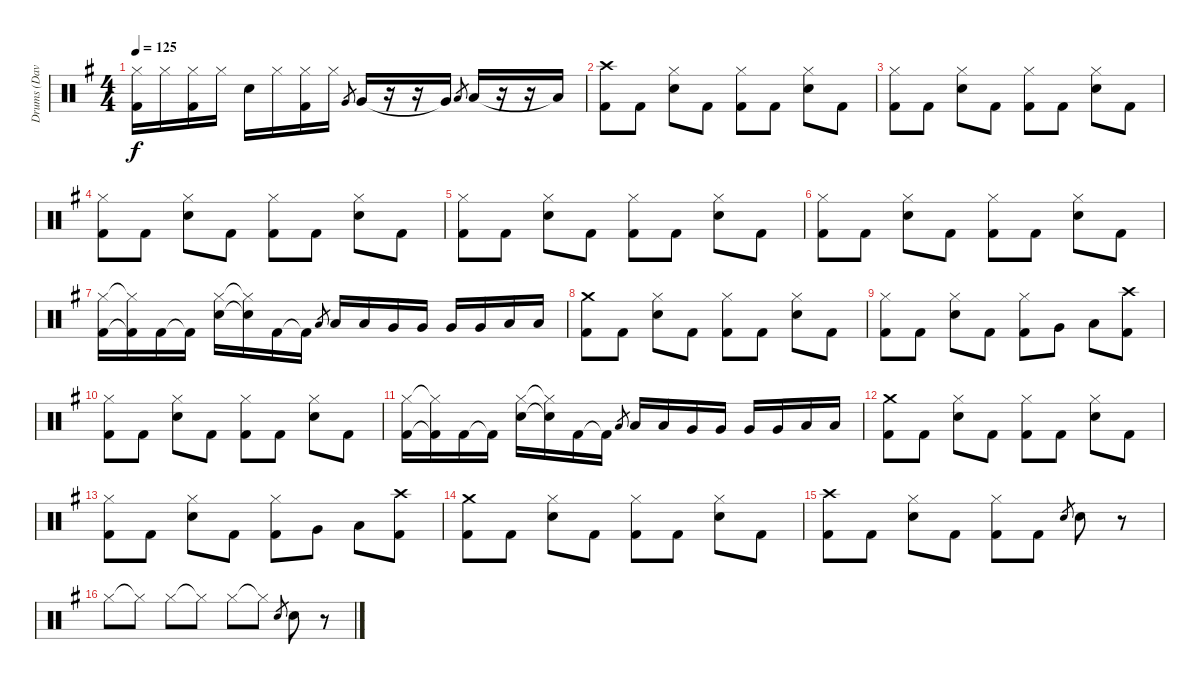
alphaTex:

\track ("Drums (Dave Holland)" "Drums (Dav") {instrument percussion}
\staff {score}
\articulation defaults
\ts (4 4)
\tempo 125
\clef neutral
\ks g
("Hi-Hat (closed)" "Kick (hit) 2").16{dy f} "Hi-Hat (closed)".16 ("Hi-Hat (closed)" "Kick (hit) 2").16 "Hi-Hat (closed)".16 "Snare (hit) 2".16 "Hi-Hat (closed)".16 ("Hi-Hat (closed)" "Kick (hit) 2").16 "Hi-Hat (closed)".16 "Very Low Tom (hit)".8{gr} "Very Low Tom (hit)".16 r.16 r.16 "Very Low Tom (hit)"{t}.16 "Low Floor Tom (hit)".8{gr} "Low Floor Tom (hit)".16 r.16 r.16 "Low Floor Tom (hit)"{t}.16 |
("Crash high (hit)" "Kick (hit) 2").8 "Kick (hit) 2".8 ("Hi-Hat (closed)" "Snare (hit) 2").8 "Kick (hit) 2".8 ("Hi-Hat (closed)" "Kick (hit) 2").8 "Kick (hit) 2".8 ("Hi-Hat (closed)" "Snare (hit) 2").8 "Kick (hit) 2".8 |
("Hi-Hat (closed)" "Kick (hit) 2").8 "Kick (hit) 2".8 ("Hi-Hat (closed)" "Snare (hit) 2").8 "Kick (hit) 2".8 ("Hi-Hat (closed)" "Kick (hit) 2").8 "Kick (hit) 2".8 ("Hi-Hat (closed)" "Snare (hit) 2").8 "Kick (hit) 2".8 |
("Hi-Hat (closed)" "Kick (hit) 2").8 "Kick (hit) 2".8 ("Hi-Hat (closed)" "Snare (hit) 2").8 "Kick (hit) 2".8 ("Hi-Hat (closed)" "Kick (hit) 2").8 "Kick (hit) 2".8 ("Hi-Hat (closed)" "Snare (hit) 2").8 "Kick (hit) 2".8 |
("Hi-Hat (closed)" "Kick (hit) 2").8 "Kick (hit) 2".8 ("Hi-Hat (closed)" "Snare (hit) 2").8 "Kick (hit) 2".8 ("Hi-Hat (closed)" "Kick (hit) 2").8 "Kick (hit) 2".8 ("Hi-Hat (closed)" "Snare (hit) 2").8 "Kick (hit) 2".8 |
("Hi-Hat (closed)" "Kick (hit) 2").8 "Kick (hit) 2".8 ("Hi-Hat (closed)" "Snare (hit) 2").8 "Kick (hit) 2".8 ("Hi-Hat (closed)" "Kick (hit) 2").8 "Kick (hit) 2".8 ("Hi-Hat (closed)" "Snare (hit) 2").8 "Kick (hit) 2".8 |
("Hi-Hat (closed)" "Kick (hit) 2").16 ("Hi-Hat (closed)"{t} "Kick (hit) 2"{t}).16 "Kick (hit) 2".16 "Kick (hit) 2"{t}.16 ("Hi-Hat (closed)" "Snare (hit) 2").16 ("Hi-Hat (closed)"{t} "Snare (hit) 2"{t}).16 "Kick (hit) 2".16 "Kick (hit) 2"{t}.16 "Low Tom (hit)".8{gr} "Low Tom (hit)".16 "Low Tom (hit)".16 "Very Low Tom (hit)".16 "Very Low Tom (hit)".16 "Very Low Tom (hit)".16 "Very Low Tom (hit)".16 "Low Floor Tom (hit)".16 "Low Floor Tom (hit)".16 |
("Crash medium (hit)" "Kick (hit) 2").8 "Kick (hit) 2".8 ("Hi-Hat (closed)" "Snare (hit) 2").8 "Kick (hit) 2".8 ("Hi-Hat (closed)" "Kick (hit) 2").8 "Kick (hit) 2".8 ("Hi-Hat (closed)" "Snare (hit) 2").8 "Kick (hit) 2".8 |
("Hi-Hat (closed)" "Kick (hit) 2").8 "Kick (hit) 2".8 ("Hi-Hat (closed)" "Snare (hit) 2").8 "Kick (hit) 2".8 ("Hi-Hat (closed)" "Kick (hit) 2").8 "Very Low Tom (hit)".8 "Low Floor Tom (hit)".8 ("Crash high (hit)" "Kick (hit) 2").8 |
("Hi-Hat (closed)" "Kick (hit) 2").8 "Kick (hit) 2".8 ("Hi-Hat (closed)" "Snare (hit) 2").8 "Kick (hit) 2".8 ("Hi-Hat (closed)" "Kick (hit) 2").8 "Kick (hit) 2".8 ("Hi-Hat (closed)" "Snare (hit) 2").8 "Kick (hit) 2".8 |
("Hi-Hat (closed)" "Kick (hit) 2").16 ("Hi-Hat (closed)"{t} "Kick (hit) 2"{t}).16 "Kick (hit) 2".16 "Kick (hit) 2"{t}.16 ("Hi-Hat (closed)" "Snare (hit) 2").16 ("Hi-Hat (closed)"{t} "Snare (hit) 2"{t}).16 "Kick (hit) 2".16 "Kick (hit) 2"{t}.16 "Low Tom (hit)".8{gr} "Low Tom (hit)".16 "Low Tom (hit)".16 "Very Low Tom (hit)".16 "Very Low Tom (hit)".16 "Very Low Tom (hit)".16 "Very Low Tom (hit)".16 "Low Floor Tom (hit)".16 "Low Floor Tom (hit)".16 |
("Crash medium (hit)" "Kick (hit) 2").8 "Kick (hit) 2".8 ("Hi-Hat (closed)" "Snare (hit) 2").8 "Kick (hit) 2".8 ("Hi-Hat (closed)" "Kick (hit) 2").8 "Kick (hit) 2".8 ("Hi-Hat (closed)" "Snare (hit) 2").8 "Kick (hit) 2".8 |
("Hi-Hat (closed)" "Kick (hit) 2").8 "Kick (hit) 2".8 ("Hi-Hat (closed)" "Snare (hit) 2").8 "Kick (hit) 2".8 ("Hi-Hat (closed)" "Kick (hit) 2").8 "Very Low Tom (hit)".8 "Low Floor Tom (hit)".8 ("Crash high (hit)" "Kick (hit) 2").8 |
("Crash medium (hit)" "Kick (hit) 2").8 "Kick (hit) 2".8 ("Hi-Hat (closed)" "Snare (hit) 2").8 "Kick (hit) 2".8 ("Hi-Hat (closed)" "Kick (hit) 2").8 "Kick (hit) 2".8 ("Hi-Hat (closed)" "Snare (hit) 2").8 "Kick (hit) 2".8 |
("Crash high (hit)" "Kick (hit) 2").8 "Kick (hit) 2".8 ("Hi-Hat (closed)" "Snare (hit) 2").8 "Kick (hit) 2".8 ("Hi-Hat (closed)" "Kick (hit) 2").8 "Kick (hit) 2".8 "Snare (hit) 2".8{gr} "Snare (hit) 2".8 r.8 |
"Hi-Hat (closed)".8 "Hi-Hat (closed)"{t}.8 "Hi-Hat (closed)".8 "Hi-Hat (closed)"{t}.8 "Hi-Hat (closed)".8 "Hi-Hat (closed)"{t}.8 "Snare (hit) 2".8{gr} "Snare (hit) 2".8 r.8
